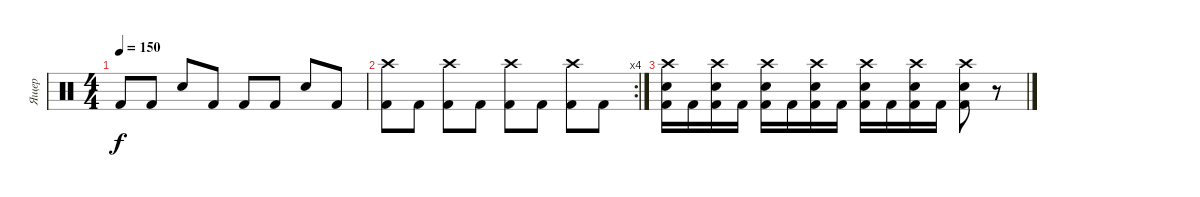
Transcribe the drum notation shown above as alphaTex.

\track ("Ящер" "Ящер") {instrument percussion}
\staff {score}
\articulation defaults
\ts (4 4)
\tempo 150
\clef neutral
\ks c "Kick (hit) 2".8{dy f} "Kick (hit) 2".8 "Snare (hit) 2".8 "Kick (hit) 2".8 "Kick (hit) 2".8 "Kick (hit) 2".8 "Snare (hit) 2".8 "Kick (hit) 2".8
|
\rc 4
("Kick (hit) 2" "Crash high (hit)").8 "Kick (hit) 2".8 ("Kick (hit) 2" "Crash high (hit)").8 "Kick (hit) 2".8 ("Kick (hit) 2" "Crash high (hit)").8 "Kick (hit) 2".8 ("Kick (hit) 2" "Crash high (hit)").8 "Kick (hit) 2".8 |
("Kick (hit) 2" "Snare (hit) 2" "Crash high (hit)").16 "Kick (hit) 2".16 ("Kick (hit) 2" "Snare (hit) 2" "Crash high (hit)").16 "Kick (hit) 2".16 ("Kick (hit) 2" "Snare (hit) 2" "Crash high (hit)").16 "Kick (hit) 2".16 ("Kick (hit) 2" "Snare (hit) 2" "Crash high (hit)").16 "Kick (hit) 2".16 ("Kick (hit) 2" "Snare (hit) 2" "Crash high (hit)").16 "Kick (hit) 2".16 ("Kick (hit) 2" "Snare (hit) 2" "Crash high (hit)").16 "Kick (hit) 2".16 ("Kick (hit) 2" "Snare (hit) 2" "Crash high (hit)").8 r.8
